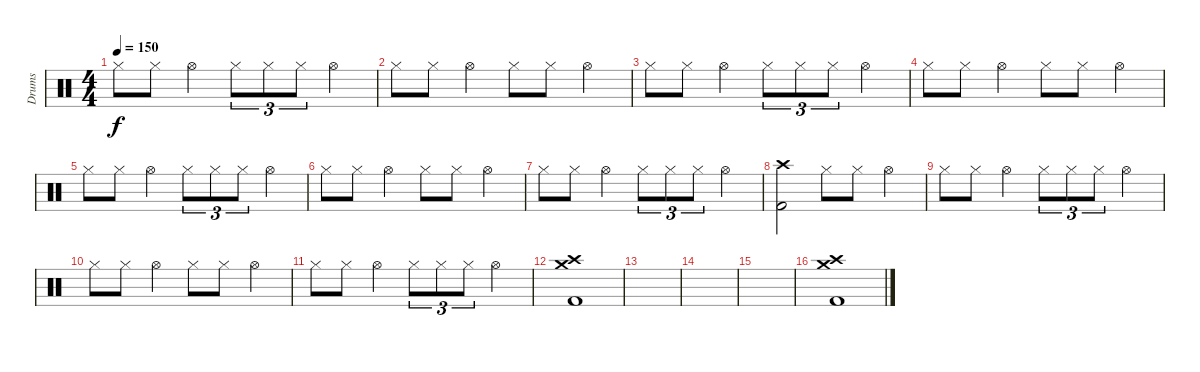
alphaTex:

\track ("Drums" "Drums") {instrument percussion}
\staff {score}
\articulation defaults
\ts (4 4)
\tempo 150
\clef neutral
\ks c "Hi-Hat (closed)".8{dy f} "Hi-Hat (closed)".8 "Hi-Hat (open)".4 "Hi-Hat (closed)".8{tu (3 2)} "Hi-Hat (closed)".8{tu (3 2)} "Hi-Hat (closed)".8{tu (3 2)} "Hi-Hat (open)".4
|
"Hi-Hat (closed)".8 "Hi-Hat (closed)".8 "Hi-Hat (open)".4 "Hi-Hat (closed)".8 "Hi-Hat (closed)".8 "Hi-Hat (open)".4 |
"Hi-Hat (closed)".8 "Hi-Hat (closed)".8 "Hi-Hat (open)".4 "Hi-Hat (closed)".8{tu (3 2)} "Hi-Hat (closed)".8{tu (3 2)} "Hi-Hat (closed)".8{tu (3 2)} "Hi-Hat (open)".4 |
"Hi-Hat (closed)".8 "Hi-Hat (closed)".8 "Hi-Hat (open)".4 "Hi-Hat (closed)".8 "Hi-Hat (closed)".8 "Hi-Hat (open)".4 |
"Hi-Hat (closed)".8 "Hi-Hat (closed)".8 "Hi-Hat (open)".4 "Hi-Hat (closed)".8{tu (3 2)} "Hi-Hat (closed)".8{tu (3 2)} "Hi-Hat (closed)".8{tu (3 2)} "Hi-Hat (open)".4 |
"Hi-Hat (closed)".8 "Hi-Hat (closed)".8 "Hi-Hat (open)".4 "Hi-Hat (closed)".8 "Hi-Hat (closed)".8 "Hi-Hat (open)".4 |
"Hi-Hat (closed)".8 "Hi-Hat (closed)".8 "Hi-Hat (open)".4 "Hi-Hat (closed)".8{tu (3 2)} "Hi-Hat (closed)".8{tu (3 2)} "Hi-Hat (closed)".8{tu (3 2)} "Hi-Hat (open)".4 |
("Crash high (hit)" "Kick (hit) 2").2 "Hi-Hat (closed)".8 "Hi-Hat (closed)".8 "Hi-Hat (open)".4 |
"Hi-Hat (closed)".8 "Hi-Hat (closed)".8 "Hi-Hat (open)".4 "Hi-Hat (closed)".8{tu (3 2)} "Hi-Hat (closed)".8{tu (3 2)} "Hi-Hat (closed)".8{tu (3 2)} "Hi-Hat (open)".4 |
"Hi-Hat (closed)".8 "Hi-Hat (closed)".8 "Hi-Hat (open)".4 "Hi-Hat (closed)".8 "Hi-Hat (closed)".8 "Hi-Hat (open)".4 |
"Hi-Hat (closed)".8 "Hi-Hat (closed)".8 "Hi-Hat (open)".4 "Hi-Hat (closed)".8{tu (3 2)} "Hi-Hat (closed)".8{tu (3 2)} "Hi-Hat (closed)".8{tu (3 2)} "Hi-Hat (open)".4 |
("Crash medium (hit)" "Crash high (hit)" "Kick (hit) 2").1 |
|
|
|
("Crash medium (hit)" "Crash high (hit)" "Kick (hit) 2").1
